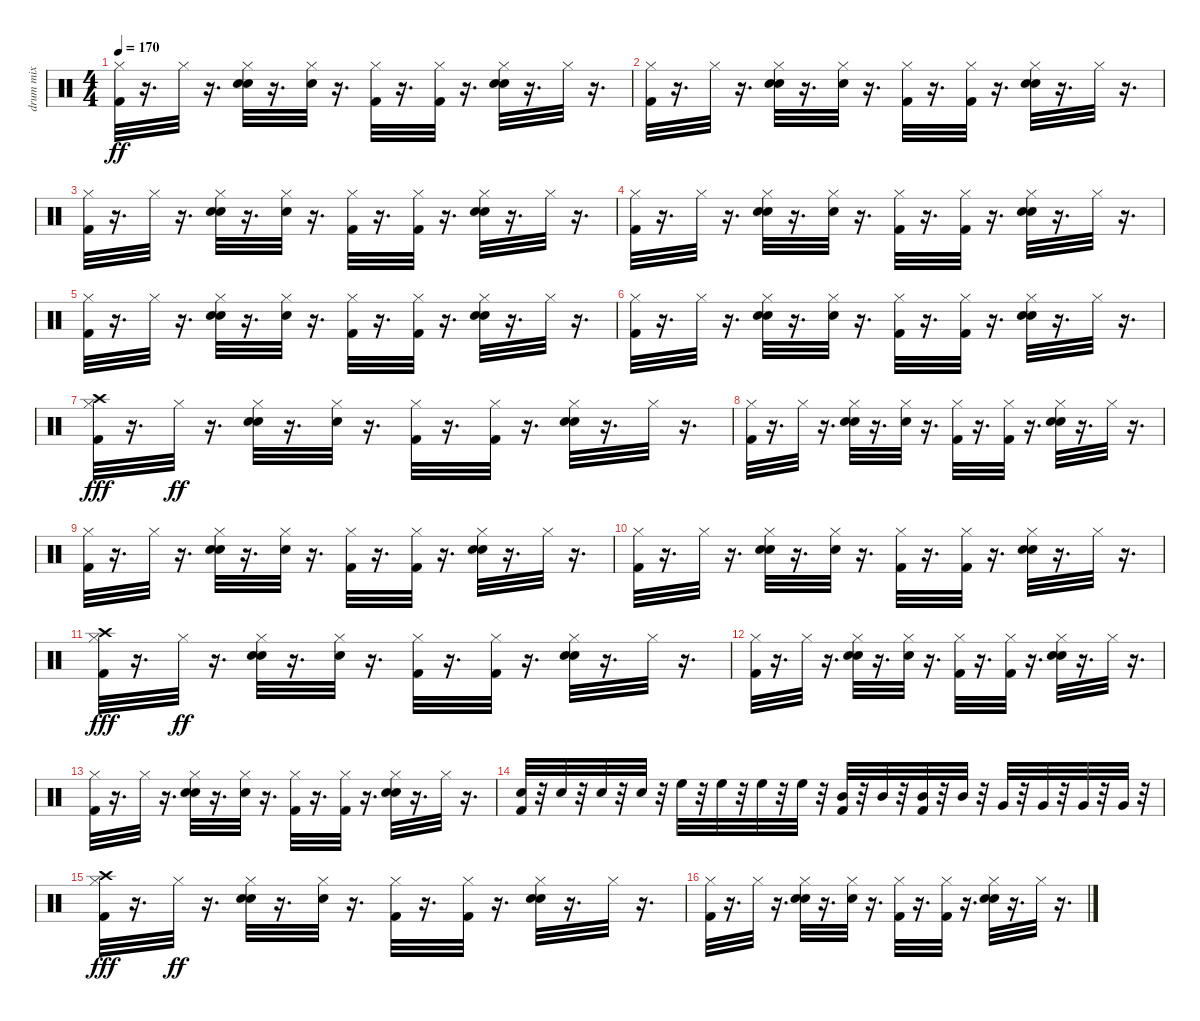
\track ("drum mix" "drum mix") {instrument percussion}
\staff {score}
\articulation defaults
\ts (4 4)
\tempo 170
\clef neutral
\ks c
("Kick (hit) 2" "Hi-Hat (closed)").32{dy ff} r.16{d} "Hi-Hat (closed)".32 r.16{d} ("Snare (hit) 2" "Hand Clap (hit)" "Hi-Hat (closed)").32 r.16{d} ("Snare (hit) 2" "Hi-Hat (closed)").32 r.16{d} ("Kick (hit) 2" "Hi-Hat (closed)").32 r.16{d} ("Kick (hit) 2" "Hi-Hat (closed)").32 r.16{d} ("Snare (hit) 2" "Hand Clap (hit)" "Hi-Hat (closed)").32 r.16{d} "Hi-Hat (closed)".32 r.16{d} |
("Kick (hit) 2" "Hi-Hat (closed)").32 r.16{d} "Hi-Hat (closed)".32 r.16{d} ("Snare (hit) 2" "Hand Clap (hit)" "Hi-Hat (closed)").32 r.16{d} ("Snare (hit) 2" "Hi-Hat (closed)").32 r.16{d} ("Kick (hit) 2" "Hi-Hat (closed)").32 r.16{d} ("Kick (hit) 2" "Hi-Hat (closed)").32 r.16{d} ("Snare (hit) 2" "Hand Clap (hit)" "Hi-Hat (closed)").32 r.16{d} "Hi-Hat (closed)".32 r.16{d} |
("Kick (hit) 2" "Hi-Hat (closed)").32 r.16{d} "Hi-Hat (closed)".32 r.16{d} ("Snare (hit) 2" "Hand Clap (hit)" "Hi-Hat (closed)").32 r.16{d} ("Snare (hit) 2" "Hi-Hat (closed)").32 r.16{d} ("Kick (hit) 2" "Hi-Hat (closed)").32 r.16{d} ("Kick (hit) 2" "Hi-Hat (closed)").32 r.16{d} ("Snare (hit) 2" "Hand Clap (hit)" "Hi-Hat (closed)").32 r.16{d} "Hi-Hat (closed)".32 r.16{d} |
("Kick (hit) 2" "Hi-Hat (closed)").32 r.16{d} "Hi-Hat (closed)".32 r.16{d} ("Snare (hit) 2" "Hand Clap (hit)" "Hi-Hat (closed)").32 r.16{d} ("Snare (hit) 2" "Hi-Hat (closed)").32 r.16{d} ("Kick (hit) 2" "Hi-Hat (closed)").32 r.16{d} ("Kick (hit) 2" "Hi-Hat (closed)").32 r.16{d} ("Snare (hit) 2" "Hand Clap (hit)" "Hi-Hat (closed)").32 r.16{d} "Hi-Hat (closed)".32 r.16{d} |
("Kick (hit) 2" "Hi-Hat (closed)").32 r.16{d} "Hi-Hat (closed)".32 r.16{d} ("Snare (hit) 2" "Hand Clap (hit)" "Hi-Hat (closed)").32 r.16{d} ("Snare (hit) 2" "Hi-Hat (closed)").32 r.16{d} ("Kick (hit) 2" "Hi-Hat (closed)").32 r.16{d} ("Kick (hit) 2" "Hi-Hat (closed)").32 r.16{d} ("Snare (hit) 2" "Hand Clap (hit)" "Hi-Hat (closed)").32 r.16{d} "Hi-Hat (closed)".32 r.16{d} |
("Kick (hit) 2" "Hi-Hat (closed)").32 r.16{d} "Hi-Hat (closed)".32 r.16{d} ("Snare (hit) 2" "Hand Clap (hit)" "Hi-Hat (closed)").32 r.16{d} ("Snare (hit) 2" "Hi-Hat (closed)").32 r.16{d} ("Kick (hit) 2" "Hi-Hat (closed)").32 r.16{d} ("Kick (hit) 2" "Hi-Hat (closed)").32 r.16{d} ("Snare (hit) 2" "Hand Clap (hit)" "Hi-Hat (closed)").32 r.16{d} "Hi-Hat (closed)".32 r.16{d} |
("Kick (hit) 2" "Hi-Hat (closed)" "Crash high (hit)").32{dy fff} r.16{d} "Hi-Hat (closed)".32{dy ff} r.16{d} ("Snare (hit) 2" "Hand Clap (hit)" "Hi-Hat (closed)").32 r.16{d} ("Snare (hit) 2" "Hi-Hat (closed)").32 r.16{d} ("Kick (hit) 2" "Hi-Hat (closed)").32 r.16{d} ("Kick (hit) 2" "Hi-Hat (closed)").32 r.16{d} ("Snare (hit) 2" "Hand Clap (hit)" "Hi-Hat (closed)").32 r.16{d} "Hi-Hat (closed)".32 r.16{d} |
("Kick (hit) 2" "Hi-Hat (closed)").32 r.16{d} "Hi-Hat (closed)".32 r.16{d} ("Snare (hit) 2" "Hand Clap (hit)" "Hi-Hat (closed)").32 r.16{d} ("Snare (hit) 2" "Hi-Hat (closed)").32 r.16{d} ("Kick (hit) 2" "Hi-Hat (closed)").32 r.16{d} ("Kick (hit) 2" "Hi-Hat (closed)").32 r.16{d} ("Snare (hit) 2" "Hand Clap (hit)" "Hi-Hat (closed)").32 r.16{d} "Hi-Hat (closed)".32 r.16{d} |
("Kick (hit) 2" "Hi-Hat (closed)").32 r.16{d} "Hi-Hat (closed)".32 r.16{d} ("Snare (hit) 2" "Hand Clap (hit)" "Hi-Hat (closed)").32 r.16{d} ("Snare (hit) 2" "Hi-Hat (closed)").32 r.16{d} ("Kick (hit) 2" "Hi-Hat (closed)").32 r.16{d} ("Kick (hit) 2" "Hi-Hat (closed)").32 r.16{d} ("Snare (hit) 2" "Hand Clap (hit)" "Hi-Hat (closed)").32 r.16{d} "Hi-Hat (closed)".32 r.16{d} |
("Kick (hit) 2" "Hi-Hat (closed)").32 r.16{d} "Hi-Hat (closed)".32 r.16{d} ("Snare (hit) 2" "Hand Clap (hit)" "Hi-Hat (closed)").32 r.16{d} ("Snare (hit) 2" "Hi-Hat (closed)").32 r.16{d} ("Kick (hit) 2" "Hi-Hat (closed)").32 r.16{d} ("Kick (hit) 2" "Hi-Hat (closed)").32 r.16{d} ("Snare (hit) 2" "Hand Clap (hit)" "Hi-Hat (closed)").32 r.16{d} "Hi-Hat (closed)".32 r.16{d} |
("Kick (hit) 2" "Hi-Hat (closed)" "Crash high (hit)").32{dy fff} r.16{d} "Hi-Hat (closed)".32{dy ff} r.16{d} ("Snare (hit) 2" "Hand Clap (hit)" "Hi-Hat (closed)").32 r.16{d} ("Snare (hit) 2" "Hi-Hat (closed)").32 r.16{d} ("Kick (hit) 2" "Hi-Hat (closed)").32 r.16{d} ("Kick (hit) 2" "Hi-Hat (closed)").32 r.16{d} ("Snare (hit) 2" "Hand Clap (hit)" "Hi-Hat (closed)").32 r.16{d} "Hi-Hat (closed)".32 r.16{d} |
("Kick (hit) 2" "Hi-Hat (closed)").32 r.16{d} "Hi-Hat (closed)".32 r.16{d} ("Snare (hit) 2" "Hand Clap (hit)" "Hi-Hat (closed)").32 r.16{d} ("Snare (hit) 2" "Hi-Hat (closed)").32 r.16{d} ("Kick (hit) 2" "Hi-Hat (closed)").32 r.16{d} ("Kick (hit) 2" "Hi-Hat (closed)").32 r.16{d} ("Snare (hit) 2" "Hand Clap (hit)" "Hi-Hat (closed)").32 r.16{d} "Hi-Hat (closed)".32 r.16{d} |
("Kick (hit) 2" "Hi-Hat (closed)").32 r.16{d} "Hi-Hat (closed)".32 r.16{d} ("Snare (hit) 2" "Hand Clap (hit)" "Hi-Hat (closed)").32 r.16{d} ("Snare (hit) 2" "Hi-Hat (closed)").32 r.16{d} ("Kick (hit) 2" "Hi-Hat (closed)").32 r.16{d} ("Kick (hit) 2" "Hi-Hat (closed)").32 r.16{d} ("Snare (hit) 2" "Hand Clap (hit)" "Hi-Hat (closed)").32 r.16{d} "Hi-Hat (closed)".32 r.16{d} |
("Kick (hit) 2" "Snare (hit) 2").32 r.32 "Snare (hit) 2".32 r.32 "Snare (hit) 2".32 r.32 "Snare (hit) 2".32 r.32 "High Floor Tom (hit)".32 r.32 "High Floor Tom (hit)".32 r.32 "High Floor Tom (hit)".32 r.32 "High Floor Tom (hit)".32 r.32 ("Kick (hit) 2" "Mid Tom (hit)").32 r.32 "Mid Tom (hit)".32 r.32 ("Kick (hit) 2" "Mid Tom (hit)").32 r.32 "Mid Tom (hit)".32 r.32 "Very Low Tom (hit)".32 r.32 "Very Low Tom (hit)".32 r.32 "Very Low Tom (hit)".32 r.32 "Very Low Tom (hit)".32 r.32 |
("Kick (hit) 2" "Hi-Hat (closed)" "Crash high (hit)").32{dy fff} r.16{d} "Hi-Hat (closed)".32{dy ff} r.16{d} ("Snare (hit) 2" "Hand Clap (hit)" "Hi-Hat (closed)").32 r.16{d} ("Snare (hit) 2" "Hi-Hat (closed)").32 r.16{d} ("Kick (hit) 2" "Hi-Hat (closed)").32 r.16{d} ("Kick (hit) 2" "Hi-Hat (closed)").32 r.16{d} ("Snare (hit) 2" "Hand Clap (hit)" "Hi-Hat (closed)").32 r.16{d} "Hi-Hat (closed)".32 r.16{d} |
("Kick (hit) 2" "Hi-Hat (closed)").32 r.16{d} "Hi-Hat (closed)".32 r.16{d} ("Snare (hit) 2" "Hand Clap (hit)" "Hi-Hat (closed)").32 r.16{d} ("Snare (hit) 2" "Hi-Hat (closed)").32 r.16{d} ("Kick (hit) 2" "Hi-Hat (closed)").32 r.16{d} ("Kick (hit) 2" "Hi-Hat (closed)").32 r.16{d} ("Snare (hit) 2" "Hand Clap (hit)" "Hi-Hat (closed)").32 r.16{d} "Hi-Hat (closed)".32 r.16{d}
